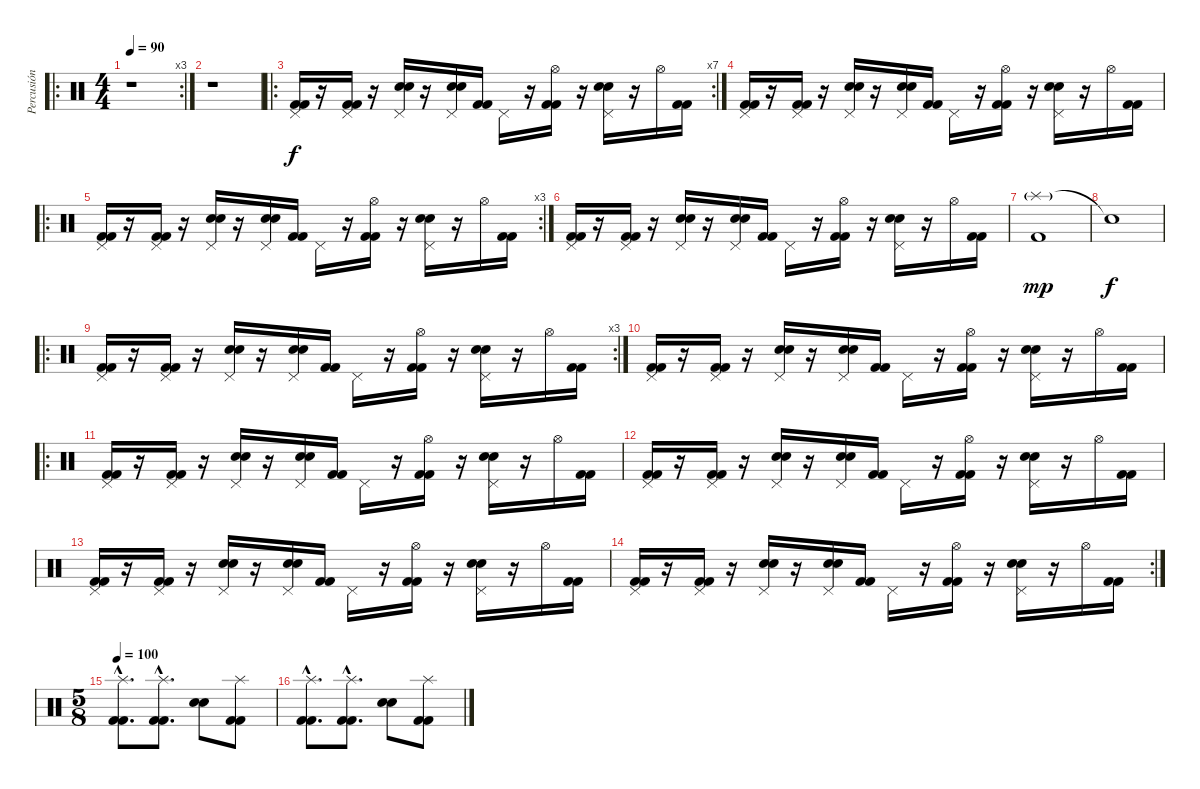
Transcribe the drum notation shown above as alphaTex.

\track ("Percusión" "Percusión") {instrument percussion}
\staff {score}
\articulation defaults
\ro
\rc 3
\ts (4 4)
\tempo 90
\clef neutral
\ks c
r.1{dy f} |
r.1 |
\ro
\rc 7
("Pedal Hi-Hat (hit)" "Kick (hit) 2" "Kick (hit) 2").16 r.16 ("Pedal Hi-Hat (hit)" "Kick (hit) 2" "Kick (hit) 2").16 r.16 ("Pedal Hi-Hat (hit)" "Electric Snare (hit)" "Electric Snare (hit)").16 r.16 ("Pedal Hi-Hat (hit)" "Electric Snare (hit)" "Electric Snare (hit)").16 ("Kick (hit) 2" "Kick (hit) 2").16 "Pedal Hi-Hat (hit)".16 r.16 ("Hi-Hat (open)" "Kick (hit) 2" "Kick (hit) 2").16 r.16 ("Pedal Hi-Hat (hit)" "Electric Snare (hit)" "Electric Snare (hit)").16 r.16 "Hi-Hat (open)".16 ("Kick (hit) 2" "Kick (hit) 2").16 |
("Pedal Hi-Hat (hit)" "Kick (hit) 2" "Kick (hit) 2").16 r.16 ("Pedal Hi-Hat (hit)" "Kick (hit) 2" "Kick (hit) 2").16 r.16 ("Pedal Hi-Hat (hit)" "Electric Snare (hit)" "Electric Snare (hit)").16 r.16 ("Pedal Hi-Hat (hit)" "Electric Snare (hit)" "Electric Snare (hit)").16 ("Kick (hit) 2" "Kick (hit) 2").16 "Pedal Hi-Hat (hit)".16 r.16 ("Hi-Hat (open)" "Kick (hit) 2" "Kick (hit) 2").16 r.16 ("Pedal Hi-Hat (hit)" "Electric Snare (hit)" "Electric Snare (hit)").16 r.16 "Hi-Hat (open)".16 ("Kick (hit) 2" "Kick (hit) 2").16 |
\ro
\rc 3
("Pedal Hi-Hat (hit)" "Kick (hit) 2" "Kick (hit) 2").16 r.16 ("Pedal Hi-Hat (hit)" "Kick (hit) 2" "Kick (hit) 2").16 r.16 ("Pedal Hi-Hat (hit)" "Electric Snare (hit)" "Electric Snare (hit)").16 r.16 ("Pedal Hi-Hat (hit)" "Electric Snare (hit)" "Electric Snare (hit)").16 ("Kick (hit) 2" "Kick (hit) 2").16 "Pedal Hi-Hat (hit)".16 r.16 ("Hi-Hat (open)" "Kick (hit) 2" "Kick (hit) 2").16 r.16 ("Pedal Hi-Hat (hit)" "Electric Snare (hit)" "Electric Snare (hit)").16 r.16 "Hi-Hat (open)".16 ("Kick (hit) 2" "Kick (hit) 2").16 |
("Pedal Hi-Hat (hit)" "Kick (hit) 2" "Kick (hit) 2").16 r.16 ("Pedal Hi-Hat (hit)" "Kick (hit) 2" "Kick (hit) 2").16 r.16 ("Pedal Hi-Hat (hit)" "Electric Snare (hit)" "Electric Snare (hit)").16 r.16 ("Pedal Hi-Hat (hit)" "Electric Snare (hit)" "Electric Snare (hit)").16 ("Kick (hit) 2" "Kick (hit) 2").16 "Pedal Hi-Hat (hit)".16 r.16 ("Hi-Hat (open)" "Kick (hit) 2" "Kick (hit) 2").16 r.16 ("Pedal Hi-Hat (hit)" "Electric Snare (hit)" "Electric Snare (hit)").16 r.16 "Hi-Hat (open)".16 ("Kick (hit) 2" "Kick (hit) 2").16 |
("Splash (hit)"{g} "Kick (hit) 2").1{dy mp} |
"Snare (hit)"{t}.1{dy f} |
\ro
\rc 3
("Pedal Hi-Hat (hit)" "Kick (hit) 2" "Kick (hit) 2").16 r.16 ("Pedal Hi-Hat (hit)" "Kick (hit) 2" "Kick (hit) 2").16 r.16 ("Pedal Hi-Hat (hit)" "Electric Snare (hit)" "Electric Snare (hit)").16 r.16 ("Pedal Hi-Hat (hit)" "Electric Snare (hit)" "Electric Snare (hit)").16 ("Kick (hit) 2" "Kick (hit) 2").16 "Pedal Hi-Hat (hit)".16 r.16 ("Hi-Hat (open)" "Kick (hit) 2" "Kick (hit) 2").16 r.16 ("Pedal Hi-Hat (hit)" "Electric Snare (hit)" "Electric Snare (hit)").16 r.16 "Hi-Hat (open)".16 ("Kick (hit) 2" "Kick (hit) 2").16 |
("Pedal Hi-Hat (hit)" "Kick (hit) 2" "Kick (hit) 2").16 r.16 ("Pedal Hi-Hat (hit)" "Kick (hit) 2" "Kick (hit) 2").16 r.16 ("Pedal Hi-Hat (hit)" "Electric Snare (hit)" "Electric Snare (hit)").16 r.16 ("Pedal Hi-Hat (hit)" "Electric Snare (hit)" "Electric Snare (hit)").16 ("Kick (hit) 2" "Kick (hit) 2").16 "Pedal Hi-Hat (hit)".16 r.16 ("Hi-Hat (open)" "Kick (hit) 2" "Kick (hit) 2").16 r.16 ("Pedal Hi-Hat (hit)" "Electric Snare (hit)" "Electric Snare (hit)").16 r.16 "Hi-Hat (open)".16 ("Kick (hit) 2" "Kick (hit) 2").16 |
\ro
("Pedal Hi-Hat (hit)" "Kick (hit) 2" "Kick (hit) 2").16 r.16 ("Pedal Hi-Hat (hit)" "Kick (hit) 2" "Kick (hit) 2").16 r.16 ("Pedal Hi-Hat (hit)" "Electric Snare (hit)" "Electric Snare (hit)").16 r.16 ("Pedal Hi-Hat (hit)" "Electric Snare (hit)" "Electric Snare (hit)").16 ("Kick (hit) 2" "Kick (hit) 2").16 "Pedal Hi-Hat (hit)".16 r.16 ("Hi-Hat (open)" "Kick (hit) 2" "Kick (hit) 2").16 r.16 ("Pedal Hi-Hat (hit)" "Electric Snare (hit)" "Electric Snare (hit)").16 r.16 "Hi-Hat (open)".16 ("Kick (hit) 2" "Kick (hit) 2").16 |
("Pedal Hi-Hat (hit)" "Kick (hit) 2" "Kick (hit) 2").16 r.16 ("Pedal Hi-Hat (hit)" "Kick (hit) 2" "Kick (hit) 2").16 r.16 ("Pedal Hi-Hat (hit)" "Electric Snare (hit)" "Electric Snare (hit)").16 r.16 ("Pedal Hi-Hat (hit)" "Electric Snare (hit)" "Electric Snare (hit)").16 ("Kick (hit) 2" "Kick (hit) 2").16 "Pedal Hi-Hat (hit)".16 r.16 ("Hi-Hat (open)" "Kick (hit) 2" "Kick (hit) 2").16 r.16 ("Pedal Hi-Hat (hit)" "Electric Snare (hit)" "Electric Snare (hit)").16 r.16 "Hi-Hat (open)".16 ("Kick (hit) 2" "Kick (hit) 2").16 |
("Pedal Hi-Hat (hit)" "Kick (hit) 2" "Kick (hit) 2").16 r.16 ("Pedal Hi-Hat (hit)" "Kick (hit) 2" "Kick (hit) 2").16 r.16 ("Pedal Hi-Hat (hit)" "Electric Snare (hit)" "Electric Snare (hit)").16 r.16 ("Pedal Hi-Hat (hit)" "Electric Snare (hit)" "Electric Snare (hit)").16 ("Kick (hit) 2" "Kick (hit) 2").16 "Pedal Hi-Hat (hit)".16 r.16 ("Hi-Hat (open)" "Kick (hit) 2" "Kick (hit) 2").16 r.16 ("Pedal Hi-Hat (hit)" "Electric Snare (hit)" "Electric Snare (hit)").16 r.16 "Hi-Hat (open)".16 ("Kick (hit) 2" "Kick (hit) 2").16 |
\rc 2
("Pedal Hi-Hat (hit)" "Kick (hit) 2" "Kick (hit) 2").16 r.16 ("Pedal Hi-Hat (hit)" "Kick (hit) 2" "Kick (hit) 2").16 r.16 ("Pedal Hi-Hat (hit)" "Electric Snare (hit)" "Electric Snare (hit)").16 r.16 ("Pedal Hi-Hat (hit)" "Electric Snare (hit)" "Electric Snare (hit)").16 ("Kick (hit) 2" "Kick (hit) 2").16 "Pedal Hi-Hat (hit)".16 r.16 ("Hi-Hat (open)" "Kick (hit) 2" "Kick (hit) 2").16 r.16 ("Pedal Hi-Hat (hit)" "Electric Snare (hit)" "Electric Snare (hit)").16 r.16 "Hi-Hat (open)".16 ("Kick (hit) 2" "Kick (hit) 2").16 |
\ts (5 8)
\tempo 100
("Splash (hit)"{hac} "Kick (hit) 2"{hac} "Kick (hit) 2"{hac}).8{d} ("Splash (hit)"{hac} "Kick (hit) 2"{hac} "Kick (hit) 2"{hac}).8{d} ("Electric Snare (hit)" "Electric Snare (hit)").8 ("Splash (hit)" "Kick (hit) 2" "Kick (hit) 2").8 |
("Splash (hit)"{hac} "Kick (hit) 2"{hac} "Kick (hit) 2"{hac}).8{d} ("Splash (hit)"{hac} "Kick (hit) 2"{hac} "Kick (hit) 2"{hac}).8{d} ("Electric Snare (hit)" "Electric Snare (hit)").8 ("Splash (hit)" "Kick (hit) 2" "Kick (hit) 2").8
